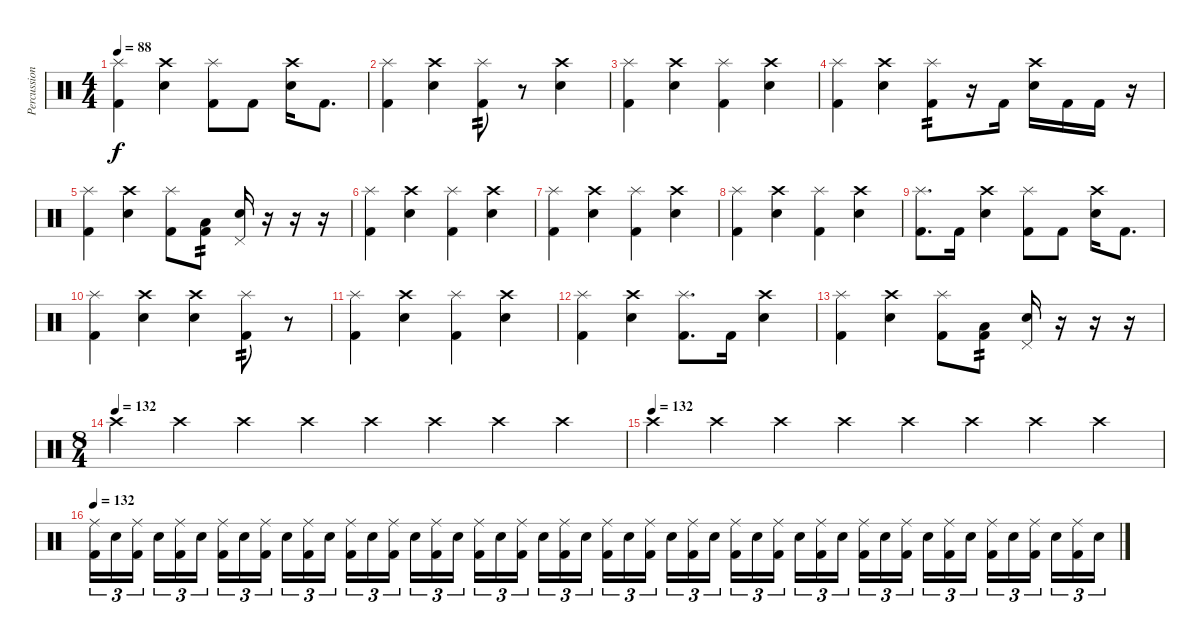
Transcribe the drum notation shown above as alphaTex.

\track ("Percussions" "Percussion") {instrument percussion}
\staff {score}
\articulation defaults
\ts (4 4)
\tempo 88
\clef neutral
\ks c
("Splash (hit)" "Kick (hit) 2").4{dy f} ("Crash high (hit)" "Electric Snare (hit)").4 ("Splash (hit)" "Kick (hit) 2").8 "Kick (hit) 2".8 ("Crash high (hit)" "Electric Snare (hit)").16 "Kick (hit) 2".8{d} |
("Splash (hit)" "Kick (hit) 2").4 ("Crash high (hit)" "Electric Snare (hit)").4 ("Splash (hit)" "Kick (hit) 2").8{tp 2} r.8 ("Crash high (hit)" "Electric Snare (hit)").4 |
("Splash (hit)" "Kick (hit) 2").4 ("Crash high (hit)" "Electric Snare (hit)").4 ("Splash (hit)" "Kick (hit) 2").4 ("Crash high (hit)" "Electric Snare (hit)").4 |
("Splash (hit)" "Kick (hit) 2").4 ("Crash high (hit)" "Electric Snare (hit)").4 ("Splash (hit)" "Kick (hit) 2").8{tp 2} r.16 "Kick (hit) 2".16 ("Crash high (hit)" "Electric Snare (hit)").16 "Kick (hit) 2".16 "Kick (hit) 2".16 r.16 |
("Splash (hit)" "Kick (hit) 2").4 ("Crash high (hit)" "Electric Snare (hit)").4 ("Splash (hit)" "Kick (hit) 2").8 ("Low Floor Tom (hit)" "Kick (hit) 2").8{tp 2} ("Pedal Hi-Hat (hit)" "Electric Snare (hit)").16 r.16 r.16 r.16 |
("Splash (hit)" "Kick (hit) 2").4 ("Crash high (hit)" "Electric Snare (hit)").4 ("Splash (hit)" "Kick (hit) 2").4 ("Crash high (hit)" "Electric Snare (hit)").4 |
("Splash (hit)" "Kick (hit) 2").4 ("Crash high (hit)" "Electric Snare (hit)").4 ("Splash (hit)" "Kick (hit) 2").4 ("Crash high (hit)" "Electric Snare (hit)").4 |
("Splash (hit)" "Kick (hit) 2").4 ("Crash high (hit)" "Electric Snare (hit)").4 ("Splash (hit)" "Kick (hit) 2").4 ("Crash high (hit)" "Electric Snare (hit)").4 |
("Splash (hit)" "Kick (hit) 2").8{d} "Kick (hit) 2".16 ("Crash high (hit)" "Electric Snare (hit)").4 ("Splash (hit)" "Kick (hit) 2").8 "Kick (hit) 2".8 ("Crash high (hit)" "Electric Snare (hit)").16 "Kick (hit) 2".8{d} |
("Splash (hit)" "Kick (hit) 2").4 ("Crash high (hit)" "Electric Snare (hit)").4 ("Crash high (hit)" "Electric Snare (hit)").4 ("Splash (hit)" "Kick (hit) 2").8{tp 2} r.8 |
("Splash (hit)" "Kick (hit) 2").4 ("Crash high (hit)" "Electric Snare (hit)").4 ("Splash (hit)" "Kick (hit) 2").4 ("Crash high (hit)" "Electric Snare (hit)").4 |
("Splash (hit)" "Kick (hit) 2").4 ("Crash high (hit)" "Electric Snare (hit)").4 ("Splash (hit)" "Kick (hit) 2").8{d} "Kick (hit) 2".16 ("Crash high (hit)" "Electric Snare (hit)").4 |
("Splash (hit)" "Kick (hit) 2").4 ("Crash high (hit)" "Electric Snare (hit)").4 ("Splash (hit)" "Kick (hit) 2").8 ("Low Floor Tom (hit)" "Kick (hit) 2").8{tp 2} ("Pedal Hi-Hat (hit)" "Electric Snare (hit)").16 r.16 r.16 r.16 |
\ts (8 4)
\tempo (132)
"Crash high (hit)".4{volume 13} "Crash high (hit)".4{volume 4} "Crash high (hit)".4 "Crash high (hit)".4 "Crash high (hit)".4 "Crash high (hit)".4 "Crash high (hit)".4 "Crash high (hit)".4{volume 14} |
\tempo (132)
"Crash high (hit)".4 "Crash high (hit)".4 "Crash high (hit)".4 "Crash high (hit)".4 "Crash high (hit)".4 "Crash high (hit)".4 "Crash high (hit)".4 "Crash high (hit)".4 |
\tempo 132
("Ride (middle)" "Kick (hit) 2").16{tu (3 2) volume 13} "Electric Snare (hit)".16{tu (3 2)} ("Ride (middle)" "Kick (hit) 2").16{tu (3 2) beam splitsecondary} "Electric Snare (hit)".16{tu (3 2)} ("Ride (middle)" "Kick (hit) 2").16{tu (3 2)} "Electric Snare (hit)".16{tu (3 2)} ("Ride (middle)" "Kick (hit) 2").16{tu (3 2)} "Electric Snare (hit)".16{tu (3 2)} ("Ride (middle)" "Kick (hit) 2").16{tu (3 2) beam splitsecondary} "Electric Snare (hit)".16{tu (3 2)} ("Ride (middle)" "Kick (hit) 2").16{tu (3 2)} "Electric Snare (hit)".16{tu (3 2)} ("Ride (middle)" "Kick (hit) 2").16{tu (3 2)} "Electric Snare (hit)".16{tu (3 2)} ("Ride (middle)" "Kick (hit) 2").16{tu (3 2) beam splitsecondary} "Electric Snare (hit)".16{tu (3 2)} ("Ride (middle)" "Kick (hit) 2").16{tu (3 2)} "Electric Snare (hit)".16{tu (3 2)} ("Ride (middle)" "Kick (hit) 2").16{tu (3 2)} "Electric Snare (hit)".16{tu (3 2)} ("Ride (middle)" "Kick (hit) 2").16{tu (3 2) beam splitsecondary} "Electric Snare (hit)".16{tu (3 2)} ("Ride (middle)" "Kick (hit) 2").16{tu (3 2)} "Electric Snare (hit)".16{tu (3 2)} ("Ride (middle)" "Kick (hit) 2").16{tu (3 2)} "Electric Snare (hit)".16{tu (3 2)} ("Ride (middle)" "Kick (hit) 2").16{tu (3 2) beam splitsecondary} "Electric Snare (hit)".16{tu (3 2)} ("Ride (middle)" "Kick (hit) 2").16{tu (3 2)} "Electric Snare (hit)".16{tu (3 2)} ("Ride (middle)" "Kick (hit) 2").16{tu (3 2)} "Electric Snare (hit)".16{tu (3 2)} ("Ride (middle)" "Kick (hit) 2").16{tu (3 2) beam splitsecondary} "Electric Snare (hit)".16{tu (3 2)} ("Ride (middle)" "Kick (hit) 2").16{tu (3 2)} "Electric Snare (hit)".16{tu (3 2)} ("Ride (middle)" "Kick (hit) 2").16{tu (3 2)} "Electric Snare (hit)".16{tu (3 2)} ("Ride (middle)" "Kick (hit) 2").16{tu (3 2) beam splitsecondary} "Electric Snare (hit)".16{tu (3 2)} ("Ride (middle)" "Kick (hit) 2").16{tu (3 2)} "Electric Snare (hit)".16{tu (3 2)} ("Ride (middle)" "Kick (hit) 2").16{tu (3 2)} "Electric Snare (hit)".16{tu (3 2)} ("Ride (middle)" "Kick (hit) 2").16{tu (3 2) beam splitsecondary} "Electric Snare (hit)".16{tu (3 2)} ("Ride (middle)" "Kick (hit) 2").16{tu (3 2)} "Electric Snare (hit)".16{tu (3 2)}
